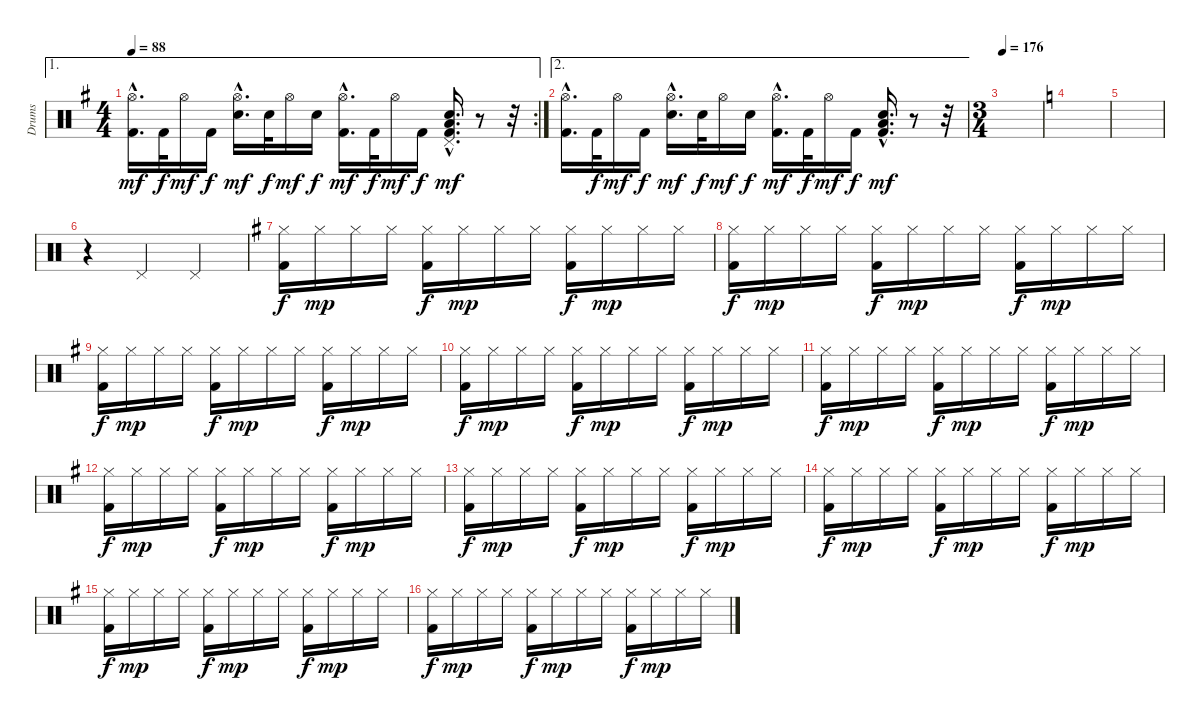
\track ("Drums" "Drums") {instrument percussion}
\staff {score}
\articulation defaults
\ae 1
\rc 2
\ts (4 4)
\tempo 88
\clef neutral
\ks g
("Hi-Hat (open)"{hac} "Kick (hit) 2"{hac}).16{d dy mf} "Kick (hit) 2".32{dy f} "Hi-Hat (open)".16{dy mf} "Kick (hit) 2".16{dy f} ("Hi-Hat (open)"{hac} "Snare (hit) 2"{hac}).16{d dy mf} "Snare (hit) 2".32{dy f} "Hi-Hat (open)".16{dy mf} "Snare (hit) 2".16{dy f} ("Hi-Hat (open)"{hac} "Kick (hit) 2"{hac}).16{d dy mf} "Kick (hit) 2".32{dy f} "Hi-Hat (open)".16{dy mf} "Kick (hit) 2".16{dy f} ("Pedal Hi-Hat (hit)"{hac} "Snare (hit) 2"{hac} "Low Floor Tom (hit)"{hac} "Kick (hit) 2"{hac}).16{d dy mf} r.8 r.32 |
\ae 2
("Hi-Hat (open)"{hac} "Kick (hit) 2"{hac}).16{d} "Kick (hit) 2".32{dy f} "Hi-Hat (open)".16{dy mf} "Kick (hit) 2".16{dy f} ("Hi-Hat (open)"{hac} "Snare (hit) 2"{hac}).16{d dy mf} "Snare (hit) 2".32{dy f} "Hi-Hat (open)".16{dy mf} "Snare (hit) 2".16{dy f} ("Hi-Hat (open)"{hac} "Kick (hit) 2"{hac}).16{d dy mf} "Kick (hit) 2".32{dy f} "Hi-Hat (open)".16{dy mf} "Kick (hit) 2".16{dy f} ("Snare (hit) 2"{hac} "Low Floor Tom (hit)"{hac} "Kick (hit) 2"{hac}).16{d dy mf} r.8 r.32 |
\ts (3 4)
\tempo 176
|
\ks c
|
|
r.4 "Pedal Hi-Hat (hit)".4 "Pedal Hi-Hat (hit)".4 |
\ks g
("Hi-Hat (closed)" "Kick (hit) 2").16{dy f} "Hi-Hat (closed)".16{dy mp} "Hi-Hat (closed)".16 "Hi-Hat (closed)".16 ("Hi-Hat (closed)" "Kick (hit) 2").16{dy f} "Hi-Hat (closed)".16{dy mp} "Hi-Hat (closed)".16 "Hi-Hat (closed)".16 ("Hi-Hat (closed)" "Kick (hit) 2").16{dy f} "Hi-Hat (closed)".16{dy mp} "Hi-Hat (closed)".16 "Hi-Hat (closed)".16 |
("Hi-Hat (closed)" "Kick (hit) 2").16{dy f} "Hi-Hat (closed)".16{dy mp} "Hi-Hat (closed)".16 "Hi-Hat (closed)".16 ("Hi-Hat (closed)" "Kick (hit) 2").16{dy f} "Hi-Hat (closed)".16{dy mp} "Hi-Hat (closed)".16 "Hi-Hat (closed)".16 ("Hi-Hat (closed)" "Kick (hit) 2").16{dy f} "Hi-Hat (closed)".16{dy mp} "Hi-Hat (closed)".16 "Hi-Hat (closed)".16 |
("Hi-Hat (closed)" "Kick (hit) 2").16{dy f} "Hi-Hat (closed)".16{dy mp} "Hi-Hat (closed)".16 "Hi-Hat (closed)".16 ("Hi-Hat (closed)" "Kick (hit) 2").16{dy f} "Hi-Hat (closed)".16{dy mp} "Hi-Hat (closed)".16 "Hi-Hat (closed)".16 ("Hi-Hat (closed)" "Kick (hit) 2").16{dy f} "Hi-Hat (closed)".16{dy mp} "Hi-Hat (closed)".16 "Hi-Hat (closed)".16 |
("Hi-Hat (closed)" "Kick (hit) 2").16{dy f} "Hi-Hat (closed)".16{dy mp} "Hi-Hat (closed)".16 "Hi-Hat (closed)".16 ("Hi-Hat (closed)" "Kick (hit) 2").16{dy f} "Hi-Hat (closed)".16{dy mp} "Hi-Hat (closed)".16 "Hi-Hat (closed)".16 ("Hi-Hat (closed)" "Kick (hit) 2").16{dy f} "Hi-Hat (closed)".16{dy mp} "Hi-Hat (closed)".16 "Hi-Hat (closed)".16 |
("Hi-Hat (closed)" "Kick (hit) 2").16{dy f} "Hi-Hat (closed)".16{dy mp} "Hi-Hat (closed)".16 "Hi-Hat (closed)".16 ("Hi-Hat (closed)" "Kick (hit) 2").16{dy f} "Hi-Hat (closed)".16{dy mp} "Hi-Hat (closed)".16 "Hi-Hat (closed)".16 ("Hi-Hat (closed)" "Kick (hit) 2").16{dy f} "Hi-Hat (closed)".16{dy mp} "Hi-Hat (closed)".16 "Hi-Hat (closed)".16 |
("Hi-Hat (closed)" "Kick (hit) 2").16{dy f} "Hi-Hat (closed)".16{dy mp} "Hi-Hat (closed)".16 "Hi-Hat (closed)".16 ("Hi-Hat (closed)" "Kick (hit) 2").16{dy f} "Hi-Hat (closed)".16{dy mp} "Hi-Hat (closed)".16 "Hi-Hat (closed)".16 ("Hi-Hat (closed)" "Kick (hit) 2").16{dy f} "Hi-Hat (closed)".16{dy mp} "Hi-Hat (closed)".16 "Hi-Hat (closed)".16 |
("Hi-Hat (closed)" "Kick (hit) 2").16{dy f} "Hi-Hat (closed)".16{dy mp} "Hi-Hat (closed)".16 "Hi-Hat (closed)".16 ("Hi-Hat (closed)" "Kick (hit) 2").16{dy f} "Hi-Hat (closed)".16{dy mp} "Hi-Hat (closed)".16 "Hi-Hat (closed)".16 ("Hi-Hat (closed)" "Kick (hit) 2").16{dy f} "Hi-Hat (closed)".16{dy mp} "Hi-Hat (closed)".16 "Hi-Hat (closed)".16 |
("Hi-Hat (closed)" "Kick (hit) 2").16{dy f} "Hi-Hat (closed)".16{dy mp} "Hi-Hat (closed)".16 "Hi-Hat (closed)".16 ("Hi-Hat (closed)" "Kick (hit) 2").16{dy f} "Hi-Hat (closed)".16{dy mp} "Hi-Hat (closed)".16 "Hi-Hat (closed)".16 ("Hi-Hat (closed)" "Kick (hit) 2").16{dy f} "Hi-Hat (closed)".16{dy mp} "Hi-Hat (closed)".16 "Hi-Hat (closed)".16 |
("Hi-Hat (closed)" "Kick (hit) 2").16{dy f} "Hi-Hat (closed)".16{dy mp} "Hi-Hat (closed)".16 "Hi-Hat (closed)".16 ("Hi-Hat (closed)" "Kick (hit) 2").16{dy f} "Hi-Hat (closed)".16{dy mp} "Hi-Hat (closed)".16 "Hi-Hat (closed)".16 ("Hi-Hat (closed)" "Kick (hit) 2").16{dy f} "Hi-Hat (closed)".16{dy mp} "Hi-Hat (closed)".16 "Hi-Hat (closed)".16 |
("Hi-Hat (closed)" "Kick (hit) 2").16{dy f} "Hi-Hat (closed)".16{dy mp} "Hi-Hat (closed)".16 "Hi-Hat (closed)".16 ("Hi-Hat (closed)" "Kick (hit) 2").16{dy f} "Hi-Hat (closed)".16{dy mp} "Hi-Hat (closed)".16 "Hi-Hat (closed)".16 ("Hi-Hat (closed)" "Kick (hit) 2").16{dy f} "Hi-Hat (closed)".16{dy mp} "Hi-Hat (closed)".16 "Hi-Hat (closed)".16
